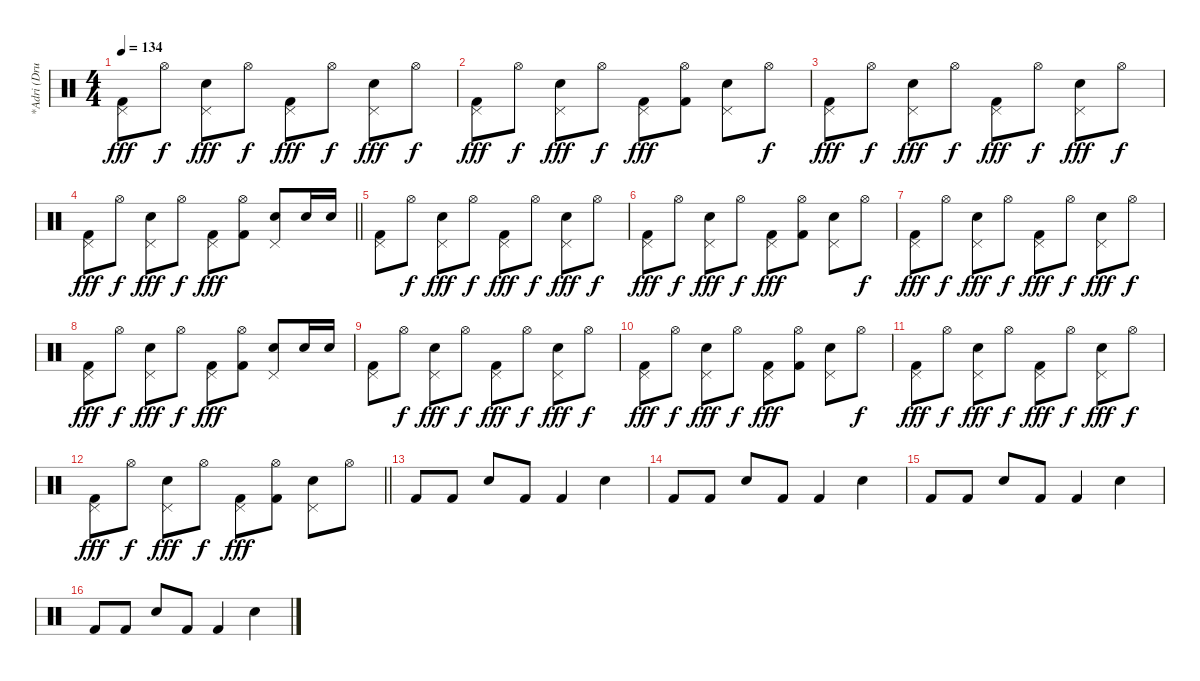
\track ("*Adri (Drum)" "*Adri (Dru") {instrument percussion}
\staff {score}
\articulation defaults
\ts (4 4)
\tempo 134
\clef neutral
\ks c
("Pedal Hi-Hat (hit)" "Kick (hit) 2").8{dy fff} "Hi-Hat (open)".8{dy f} ("Pedal Hi-Hat (hit)" "Snare (hit) 2").8{dy fff} "Hi-Hat (open)".8{dy f} ("Pedal Hi-Hat (hit)" "Kick (hit) 2").8{dy fff} "Hi-Hat (open)".8{dy f} ("Pedal Hi-Hat (hit)" "Snare (hit) 2").8{dy fff} "Hi-Hat (open)".8{dy f} |
("Pedal Hi-Hat (hit)" "Kick (hit) 2").8{dy fff} "Hi-Hat (open)".8{dy f} ("Pedal Hi-Hat (hit)" "Snare (hit) 2").8{dy fff} "Hi-Hat (open)".8{dy f} ("Pedal Hi-Hat (hit)" "Kick (hit) 2").8{dy fff} ("Hi-Hat (open)" "Kick (hit) 2").8 ("Pedal Hi-Hat (hit)" "Snare (hit) 2").8 "Hi-Hat (open)".8{dy f} |
("Pedal Hi-Hat (hit)" "Kick (hit) 2").8{dy fff} "Hi-Hat (open)".8{dy f} ("Pedal Hi-Hat (hit)" "Snare (hit) 2").8{dy fff} "Hi-Hat (open)".8{dy f} ("Pedal Hi-Hat (hit)" "Kick (hit) 2").8{dy fff} "Hi-Hat (open)".8{dy f} ("Pedal Hi-Hat (hit)" "Snare (hit) 2").8{dy fff} "Hi-Hat (open)".8{dy f} |
\barLineRight lightlight
("Pedal Hi-Hat (hit)" "Kick (hit) 2").8{dy fff} "Hi-Hat (open)".8{dy f} ("Pedal Hi-Hat (hit)" "Snare (hit) 2").8{dy fff} "Hi-Hat (open)".8{dy f} ("Pedal Hi-Hat (hit)" "Kick (hit) 2").8{dy fff} ("Hi-Hat (open)" "Kick (hit) 2").8 ("Pedal Hi-Hat (hit)" "Snare (hit) 2").8 "Snare (hit) 2".16 "Snare (hit) 2".16 |
\section ("" "")
("Pedal Hi-Hat (hit)" "Kick (hit) 2").8 "Hi-Hat (open)".8{dy f} ("Pedal Hi-Hat (hit)" "Snare (hit) 2").8{dy fff} "Hi-Hat (open)".8{dy f} ("Pedal Hi-Hat (hit)" "Kick (hit) 2").8{dy fff} "Hi-Hat (open)".8{dy f} ("Pedal Hi-Hat (hit)" "Snare (hit) 2").8{dy fff} "Hi-Hat (open)".8{dy f} |
("Pedal Hi-Hat (hit)" "Kick (hit) 2").8{dy fff} "Hi-Hat (open)".8{dy f} ("Pedal Hi-Hat (hit)" "Snare (hit) 2").8{dy fff} "Hi-Hat (open)".8{dy f} ("Pedal Hi-Hat (hit)" "Kick (hit) 2").8{dy fff} ("Hi-Hat (open)" "Kick (hit) 2").8 ("Pedal Hi-Hat (hit)" "Snare (hit) 2").8 "Hi-Hat (open)".8{dy f} |
("Pedal Hi-Hat (hit)" "Kick (hit) 2").8{dy fff} "Hi-Hat (open)".8{dy f} ("Pedal Hi-Hat (hit)" "Snare (hit) 2").8{dy fff} "Hi-Hat (open)".8{dy f} ("Pedal Hi-Hat (hit)" "Kick (hit) 2").8{dy fff} "Hi-Hat (open)".8{dy f} ("Pedal Hi-Hat (hit)" "Snare (hit) 2").8{dy fff} "Hi-Hat (open)".8{dy f} |
("Pedal Hi-Hat (hit)" "Kick (hit) 2").8{dy fff} "Hi-Hat (open)".8{dy f} ("Pedal Hi-Hat (hit)" "Snare (hit) 2").8{dy fff} "Hi-Hat (open)".8{dy f} ("Pedal Hi-Hat (hit)" "Kick (hit) 2").8{dy fff} ("Hi-Hat (open)" "Kick (hit) 2").8 ("Pedal Hi-Hat (hit)" "Snare (hit) 2").8 "Snare (hit) 2".16 "Snare (hit) 2".16 |
("Pedal Hi-Hat (hit)" "Kick (hit) 2").8 "Hi-Hat (open)".8{dy f} ("Pedal Hi-Hat (hit)" "Snare (hit) 2").8{dy fff} "Hi-Hat (open)".8{dy f} ("Pedal Hi-Hat (hit)" "Kick (hit) 2").8{dy fff} "Hi-Hat (open)".8{dy f} ("Pedal Hi-Hat (hit)" "Snare (hit) 2").8{dy fff} "Hi-Hat (open)".8{dy f} |
("Pedal Hi-Hat (hit)" "Kick (hit) 2").8{dy fff} "Hi-Hat (open)".8{dy f} ("Pedal Hi-Hat (hit)" "Snare (hit) 2").8{dy fff} "Hi-Hat (open)".8{dy f} ("Pedal Hi-Hat (hit)" "Kick (hit) 2").8{dy fff} ("Hi-Hat (open)" "Kick (hit) 2").8 ("Pedal Hi-Hat (hit)" "Snare (hit) 2").8 "Hi-Hat (open)".8{dy f} |
("Pedal Hi-Hat (hit)" "Kick (hit) 2").8{dy fff} "Hi-Hat (open)".8{dy f} ("Pedal Hi-Hat (hit)" "Snare (hit) 2").8{dy fff} "Hi-Hat (open)".8{dy f} ("Pedal Hi-Hat (hit)" "Kick (hit) 2").8{dy fff} "Hi-Hat (open)".8{dy f} ("Pedal Hi-Hat (hit)" "Snare (hit) 2").8{dy fff} "Hi-Hat (open)".8{dy f} |
\barLineRight lightlight
("Pedal Hi-Hat (hit)" "Kick (hit) 2").8{dy fff} "Hi-Hat (open)".8{dy f} ("Pedal Hi-Hat (hit)" "Snare (hit) 2").8{dy fff} "Hi-Hat (open)".8{dy f} ("Pedal Hi-Hat (hit)" "Kick (hit) 2").8{dy fff} ("Hi-Hat (open)" "Kick (hit) 2").8 ("Pedal Hi-Hat (hit)" "Snare (hit) 2").8 "Hi-Hat (open)".8 |
\section ("" "")
"Kick (hit) 2".8 "Kick (hit) 2".8 "Snare (hit) 2".8 "Kick (hit) 2".8 "Kick (hit) 2".4 "Snare (hit) 2".4 |
"Kick (hit) 2".8 "Kick (hit) 2".8 "Snare (hit) 2".8 "Kick (hit) 2".8 "Kick (hit) 2".4 "Snare (hit) 2".4 |
"Kick (hit) 2".8 "Kick (hit) 2".8 "Snare (hit) 2".8 "Kick (hit) 2".8 "Kick (hit) 2".4 "Snare (hit) 2".4 |
"Kick (hit) 2".8 "Kick (hit) 2".8 "Snare (hit) 2".8 "Kick (hit) 2".8 "Kick (hit) 2".4 "Snare (hit) 2".4
